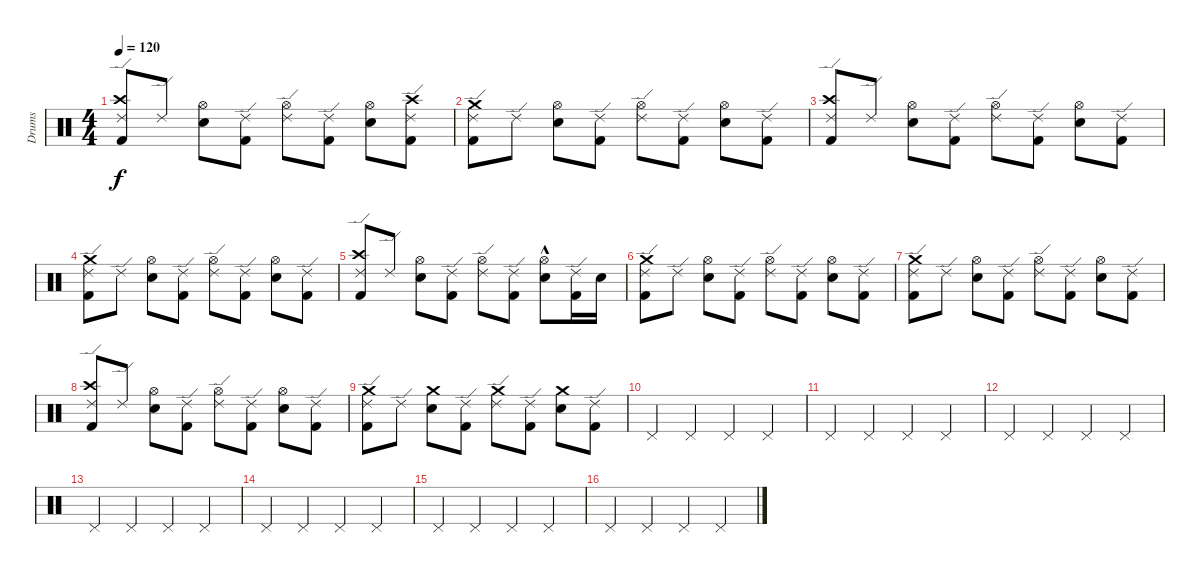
\track ("Drums" "Drums") {instrument percussion}
\staff {score}
\articulation defaults
\ts (4 4)
\tempo 120
\clef neutral
\ks c
("Ride (edge) 2" "Crash high (hit)" "Kick (hit) 2").8{dy f} "Ride (edge) 2".8 ("Hi-Hat (open)" "Electric Snare (hit)").8 ("Ride (edge) 2" "Kick (hit) 2").8 ("Ride (edge) 2" "Hi-Hat (open)").8 ("Ride (edge) 2" "Kick (hit) 2").8 ("Hi-Hat (open)" "Electric Snare (hit)").8 ("Crash high (hit)" "Ride (edge) 2" "Kick (hit) 2").8 |
("Ride (edge) 2" "Crash medium (hit)" "Kick (hit) 2").8 "Ride (edge) 2".8 ("Hi-Hat (open)" "Electric Snare (hit)").8 ("Ride (edge) 2" "Kick (hit) 2").8 ("Ride (edge) 2" "Hi-Hat (open)").8 ("Ride (edge) 2" "Kick (hit) 2").8 ("Hi-Hat (open)" "Electric Snare (hit)").8 ("Ride (edge) 2" "Kick (hit) 2").8 |
("Ride (edge) 2" "Crash high (hit)" "Kick (hit) 2").8 "Ride (edge) 2".8 ("Hi-Hat (open)" "Electric Snare (hit)").8 ("Ride (edge) 2" "Kick (hit) 2").8 ("Ride (edge) 2" "Hi-Hat (open)").8 ("Ride (edge) 2" "Kick (hit) 2").8 ("Hi-Hat (open)" "Electric Snare (hit)").8 ("Ride (edge) 2" "Kick (hit) 2").8 |
("Ride (edge) 2" "Crash medium (hit)" "Kick (hit) 2").8 "Ride (edge) 2".8 ("Hi-Hat (open)" "Electric Snare (hit)").8 ("Ride (edge) 2" "Kick (hit) 2").8 ("Ride (edge) 2" "Hi-Hat (open)").8 ("Ride (edge) 2" "Kick (hit) 2").8 ("Hi-Hat (open)" "Electric Snare (hit)").8 ("Ride (edge) 2" "Kick (hit) 2").8 |
("Ride (edge) 2" "Crash high (hit)" "Kick (hit) 2").8 "Ride (edge) 2".8 ("Hi-Hat (open)" "Electric Snare (hit)").8 ("Ride (edge) 2" "Kick (hit) 2").8 ("Ride (edge) 2" "Hi-Hat (open)").8 ("Ride (edge) 2" "Kick (hit) 2").8 ("Electric Snare (hit)"{hac} "Hi-Hat (open)").8 ("Ride (edge) 2" "Kick (hit) 2").16 "Electric Snare (hit)".16 |
("Ride (edge) 2" "Crash medium (hit)" "Kick (hit) 2").8 "Ride (edge) 2".8 ("Hi-Hat (open)" "Electric Snare (hit)").8 ("Ride (edge) 2" "Kick (hit) 2").8 ("Ride (edge) 2" "Hi-Hat (open)").8 ("Ride (edge) 2" "Kick (hit) 2").8 ("Hi-Hat (open)" "Electric Snare (hit)").8 ("Ride (edge) 2" "Kick (hit) 2").8 |
("Ride (edge) 2" "Crash medium (hit)" "Kick (hit) 2").8 "Ride (edge) 2".8 ("Electric Snare (hit)" "Hi-Hat (open)").8 ("Ride (edge) 2" "Kick (hit) 2").8 ("Ride (edge) 2" "Hi-Hat (open)").8 ("Ride (edge) 2" "Kick (hit) 2").8 ("Electric Snare (hit)" "Hi-Hat (open)").8 ("Ride (edge) 2" "Kick (hit) 2").8 |
("Ride (edge) 2" "Crash high (hit)" "Kick (hit) 2").8 "Ride (edge) 2".8 ("Hi-Hat (open)" "Electric Snare (hit)").8 ("Ride (edge) 2" "Kick (hit) 2").8 ("Ride (edge) 2" "Hi-Hat (open)").8 ("Ride (edge) 2" "Kick (hit) 2").8 ("Hi-Hat (open)" "Electric Snare (hit)").8 ("Ride (edge) 2" "Kick (hit) 2").8 |
("Ride (edge) 2" "Crash medium (hit)" "Kick (hit) 2").8 "Ride (edge) 2".8 ("Crash medium (hit)" "Electric Snare (hit)").8 ("Ride (edge) 2" "Kick (hit) 2").8 ("Ride (edge) 2" "Crash medium (hit)").8 ("Ride (edge) 2" "Kick (hit) 2").8 ("Crash medium (hit)" "Electric Snare (hit)").8 ("Ride (edge) 2" "Kick (hit) 2").8 |
"Pedal Hi-Hat (hit)".4 "Pedal Hi-Hat (hit)".4 "Pedal Hi-Hat (hit)".4 "Pedal Hi-Hat (hit)".4 |
"Pedal Hi-Hat (hit)".4 "Pedal Hi-Hat (hit)".4 "Pedal Hi-Hat (hit)".4 "Pedal Hi-Hat (hit)".4 |
"Pedal Hi-Hat (hit)".4 "Pedal Hi-Hat (hit)".4 "Pedal Hi-Hat (hit)".4 "Pedal Hi-Hat (hit)".4 |
"Pedal Hi-Hat (hit)".4 "Pedal Hi-Hat (hit)".4 "Pedal Hi-Hat (hit)".4 "Pedal Hi-Hat (hit)".4 |
"Pedal Hi-Hat (hit)".4 "Pedal Hi-Hat (hit)".4 "Pedal Hi-Hat (hit)".4 "Pedal Hi-Hat (hit)".4 |
"Pedal Hi-Hat (hit)".4 "Pedal Hi-Hat (hit)".4 "Pedal Hi-Hat (hit)".4 "Pedal Hi-Hat (hit)".4 |
"Pedal Hi-Hat (hit)".4 "Pedal Hi-Hat (hit)".4 "Pedal Hi-Hat (hit)".4 "Pedal Hi-Hat (hit)".4
